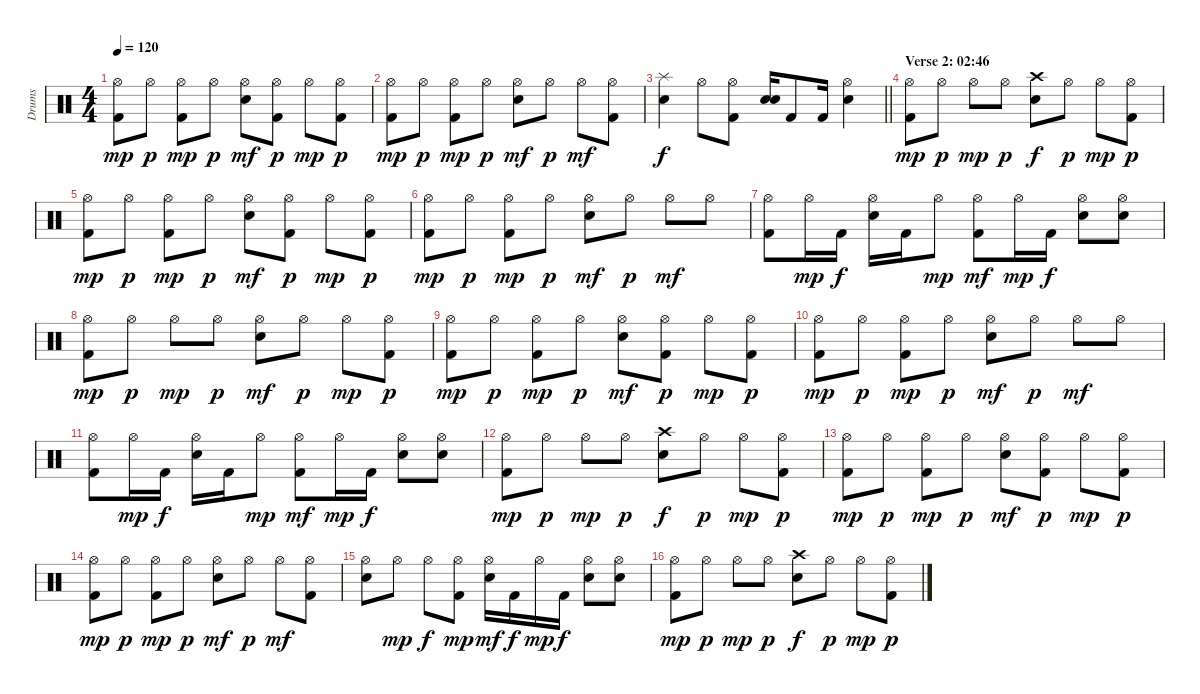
\track ("Drums" "Drums") {instrument percussion}
\staff {score}
\articulation defaults
\ts (4 4)
\tempo 120
\clef neutral
\ks c
("Hi-Hat (open)" "Kick (hit) 2").8{dy mp} "Hi-Hat (open)".8{dy p} ("Hi-Hat (open)" "Kick (hit) 2").8{dy mp} "Hi-Hat (open)".8{dy p} ("Hi-Hat (open)" "Electric Snare (hit)").8{dy mf} ("Hi-Hat (open)" "Kick (hit) 2").8{dy p} "Hi-Hat (open)".8{dy mp} ("Hi-Hat (open)" "Kick (hit) 2").8{dy p} |
("Hi-Hat (open)" "Kick (hit) 2").8{dy mp} "Hi-Hat (open)".8{dy p} ("Hi-Hat (open)" "Kick (hit) 2").8{dy mp} "Hi-Hat (open)".8{dy p} ("Hi-Hat (open)" "Electric Snare (hit)").8{dy mf} "Hi-Hat (open)".8{dy p} "Hi-Hat (open)".8{dy mf} ("Hi-Hat (open)" "Kick (hit) 2").8 |
\barLineRight lightlight
("Splash (hit)" "Electric Snare (hit)").4{dy f} "Hi-Hat (open)".8 ("Hi-Hat (open)" "Kick (hit) 2").8 ("Electric Snare (hit)" "Electric Snare (hit)").16{bd 120} "Kick (hit) 2".8 "Kick (hit) 2".16 ("Hi-Hat (open)" "Electric Snare (hit)").4 |
\section ("" "Verse 2: 02:46")
("Hi-Hat (open)" "Kick (hit) 2").8{dy mp} "Hi-Hat (open)".8{dy p} "Hi-Hat (open)".8{dy mp} "Hi-Hat (open)".8{dy p} ("Crash high (hit)" "Electric Snare (hit)").8{dy f} "Hi-Hat (open)".8{dy p} "Hi-Hat (open)".8{dy mp} ("Hi-Hat (open)" "Kick (hit) 2").8{dy p} |
("Hi-Hat (open)" "Kick (hit) 2").8{dy mp} "Hi-Hat (open)".8{dy p} ("Hi-Hat (open)" "Kick (hit) 2").8{dy mp} "Hi-Hat (open)".8{dy p} ("Hi-Hat (open)" "Electric Snare (hit)").8{dy mf} ("Hi-Hat (open)" "Kick (hit) 2").8{dy p} "Hi-Hat (open)".8{dy mp} ("Hi-Hat (open)" "Kick (hit) 2").8{dy p} |
("Hi-Hat (open)" "Kick (hit) 2").8{dy mp} "Hi-Hat (open)".8{dy p} ("Hi-Hat (open)" "Kick (hit) 2").8{dy mp} "Hi-Hat (open)".8{dy p} ("Hi-Hat (open)" "Electric Snare (hit)").8{dy mf} "Hi-Hat (open)".8{dy p} "Hi-Hat (open)".8{dy mf} "Hi-Hat (open)".8 |
("Hi-Hat (open)" "Kick (hit) 2").8 "Hi-Hat (open)".16{dy mp} "Kick (hit) 2".16{dy f} ("Hi-Hat (open)" "Electric Snare (hit)").16 "Kick (hit) 2".16 "Hi-Hat (open)".8{dy mp} ("Hi-Hat (open)" "Kick (hit) 2").8{dy mf} "Hi-Hat (open)".16{dy mp} "Kick (hit) 2".16{dy f} ("Hi-Hat (open)" "Electric Snare (hit)").8 ("Hi-Hat (open)" "Electric Snare (hit)").8 |
("Hi-Hat (open)" "Kick (hit) 2").8{dy mp} "Hi-Hat (open)".8{dy p} "Hi-Hat (open)".8{dy mp} "Hi-Hat (open)".8{dy p} ("Hi-Hat (open)" "Electric Snare (hit)").8{dy mf} "Hi-Hat (open)".8{dy p} "Hi-Hat (open)".8{dy mp} ("Hi-Hat (open)" "Kick (hit) 2").8{dy p} |
("Hi-Hat (open)" "Kick (hit) 2").8{dy mp} "Hi-Hat (open)".8{dy p} ("Hi-Hat (open)" "Kick (hit) 2").8{dy mp} "Hi-Hat (open)".8{dy p} ("Hi-Hat (open)" "Electric Snare (hit)").8{dy mf} ("Hi-Hat (open)" "Kick (hit) 2").8{dy p} "Hi-Hat (open)".8{dy mp} ("Hi-Hat (open)" "Kick (hit) 2").8{dy p} |
("Hi-Hat (open)" "Kick (hit) 2").8{dy mp} "Hi-Hat (open)".8{dy p} ("Hi-Hat (open)" "Kick (hit) 2").8{dy mp} "Hi-Hat (open)".8{dy p} ("Hi-Hat (open)" "Electric Snare (hit)").8{dy mf} "Hi-Hat (open)".8{dy p} "Hi-Hat (open)".8{dy mf} "Hi-Hat (open)".8 |
("Hi-Hat (open)" "Kick (hit) 2").8 "Hi-Hat (open)".16{dy mp} "Kick (hit) 2".16{dy f} ("Hi-Hat (open)" "Electric Snare (hit)").16 "Kick (hit) 2".16 "Hi-Hat (open)".8{dy mp} ("Hi-Hat (open)" "Kick (hit) 2").8{dy mf} "Hi-Hat (open)".16{dy mp} "Kick (hit) 2".16{dy f} ("Hi-Hat (open)" "Electric Snare (hit)").8 ("Hi-Hat (open)" "Electric Snare (hit)").8 |
("Hi-Hat (open)" "Kick (hit) 2").8{dy mp} "Hi-Hat (open)".8{dy p} "Hi-Hat (open)".8{dy mp} "Hi-Hat (open)".8{dy p} ("Crash high (hit)" "Electric Snare (hit)").8{dy f} "Hi-Hat (open)".8{dy p} "Hi-Hat (open)".8{dy mp} ("Hi-Hat (open)" "Kick (hit) 2").8{dy p} |
("Hi-Hat (open)" "Kick (hit) 2").8{dy mp} "Hi-Hat (open)".8{dy p} ("Hi-Hat (open)" "Kick (hit) 2").8{dy mp} "Hi-Hat (open)".8{dy p} ("Hi-Hat (open)" "Electric Snare (hit)").8{dy mf} ("Hi-Hat (open)" "Kick (hit) 2").8{dy p} "Hi-Hat (open)".8{dy mp} ("Hi-Hat (open)" "Kick (hit) 2").8{dy p} |
("Hi-Hat (open)" "Kick (hit) 2").8{dy mp} "Hi-Hat (open)".8{dy p} ("Hi-Hat (open)" "Kick (hit) 2").8{dy mp} "Hi-Hat (open)".8{dy p} ("Hi-Hat (open)" "Electric Snare (hit)").8{dy mf} "Hi-Hat (open)".8{dy p} "Hi-Hat (open)".8{dy mf} ("Hi-Hat (open)" "Kick (hit) 2").8 |
("Hi-Hat (open)" "Electric Snare (hit)").8 "Hi-Hat (open)".8{dy mp} "Hi-Hat (open)".8{dy f} ("Hi-Hat (open)" "Kick (hit) 2").8{dy mp} ("Hi-Hat (open)" "Electric Snare (hit)").16{dy mf} "Kick (hit) 2".16{dy f} "Hi-Hat (open)".16{dy mp} "Kick (hit) 2".16{dy f} ("Hi-Hat (open)" "Electric Snare (hit)").8 ("Hi-Hat (open)" "Electric Snare (hit)").8 |
("Hi-Hat (open)" "Kick (hit) 2").8{dy mp} "Hi-Hat (open)".8{dy p} "Hi-Hat (open)".8{dy mp} "Hi-Hat (open)".8{dy p} ("Crash high (hit)" "Electric Snare (hit)").8{dy f} "Hi-Hat (open)".8{dy p} "Hi-Hat (open)".8{dy mp} ("Hi-Hat (open)" "Kick (hit) 2").8{dy p}
